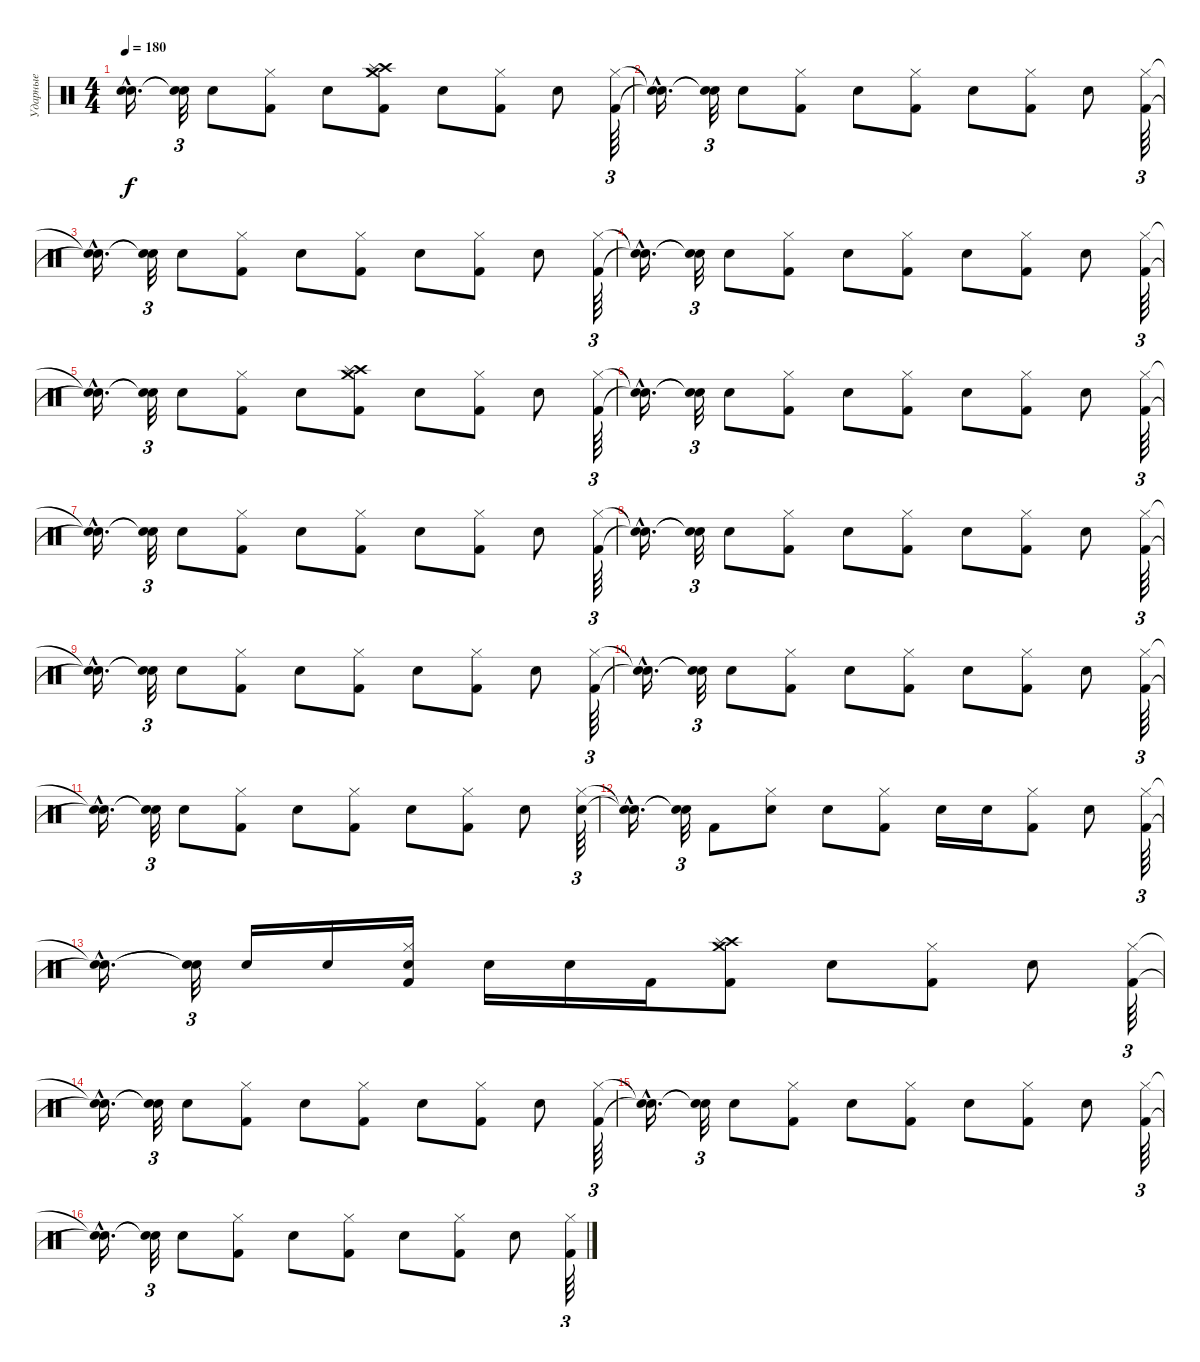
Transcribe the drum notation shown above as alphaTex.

\track ("Ударные" "Ударные") {instrument percussion}
\staff {score}
\articulation defaults
\ts (4 4)
\tempo 180
\clef neutral
\ks c
("Snare (hit)"{hac t} "Snare (hit)"{hac t}).16{d dy f} ("Snare (hit)"{t} "Snare (hit)"{t}).32{tu (3 2)} "Snare (hit) 2".8 ("Hi-Hat (closed)" "Kick (hit) 2").8 "Snare (hit) 2".8 ("Crash high (hit)" "Crash medium (hit)" "Splash (hit)" "Kick (hit) 2").8 "Snare (hit) 2".8 ("Hi-Hat (closed)" "Kick (hit) 2").8 "Snare (hit) 2".8 ("Hi-Hat (closed)" "Kick (hit) 2").64{tu (3 2)} |
("Snare (hit)"{hac t} "Snare (hit)"{hac t}).16{d} ("Snare (hit)"{t} "Snare (hit)"{t}).32{tu (3 2)} "Snare (hit) 2".8 ("Hi-Hat (closed)" "Kick (hit) 2").8 "Snare (hit) 2".8 ("Hi-Hat (closed)" "Kick (hit) 2").8 "Snare (hit) 2".8 ("Hi-Hat (closed)" "Kick (hit) 2").8 "Snare (hit) 2".8 ("Hi-Hat (closed)" "Kick (hit) 2").64{tu (3 2)} |
("Snare (hit)"{hac t} "Snare (hit)"{hac t}).16{d} ("Snare (hit)"{t} "Snare (hit)"{t}).32{tu (3 2)} "Snare (hit) 2".8 ("Hi-Hat (closed)" "Kick (hit) 2").8 "Snare (hit) 2".8 ("Hi-Hat (closed)" "Kick (hit) 2").8 "Snare (hit) 2".8 ("Hi-Hat (closed)" "Kick (hit) 2").8 "Snare (hit) 2".8 ("Hi-Hat (closed)" "Kick (hit) 2").64{tu (3 2)} |
("Snare (hit)"{hac t} "Snare (hit)"{hac t}).16{d} ("Snare (hit)"{t} "Snare (hit)"{t}).32{tu (3 2)} "Snare (hit) 2".8 ("Hi-Hat (closed)" "Kick (hit) 2").8 "Snare (hit) 2".8 ("Hi-Hat (closed)" "Kick (hit) 2").8 "Snare (hit) 2".8 ("Hi-Hat (closed)" "Kick (hit) 2").8 "Snare (hit) 2".8 ("Hi-Hat (closed)" "Kick (hit) 2").64{tu (3 2)} |
("Snare (hit)"{hac t} "Snare (hit)"{hac t}).16{d} ("Snare (hit)"{t} "Snare (hit)"{t}).32{tu (3 2)} "Snare (hit) 2".8 ("Hi-Hat (closed)" "Kick (hit) 2").8 "Snare (hit) 2".8 ("Crash high (hit)" "Crash medium (hit)" "Splash (hit)" "Kick (hit) 2").8 "Snare (hit) 2".8 ("Hi-Hat (closed)" "Kick (hit) 2").8 "Snare (hit) 2".8 ("Hi-Hat (closed)" "Kick (hit) 2").64{tu (3 2)} |
("Snare (hit)"{hac t} "Snare (hit)"{hac t}).16{d} ("Snare (hit)"{t} "Snare (hit)"{t}).32{tu (3 2)} "Snare (hit) 2".8 ("Hi-Hat (closed)" "Kick (hit) 2").8 "Snare (hit) 2".8 ("Hi-Hat (closed)" "Kick (hit) 2").8 "Snare (hit) 2".8 ("Hi-Hat (closed)" "Kick (hit) 2").8 "Snare (hit) 2".8 ("Hi-Hat (closed)" "Kick (hit) 2").64{tu (3 2)} |
("Snare (hit)"{hac t} "Snare (hit)"{hac t}).16{d} ("Snare (hit)"{t} "Snare (hit)"{t}).32{tu (3 2)} "Snare (hit) 2".8 ("Hi-Hat (closed)" "Kick (hit) 2").8 "Snare (hit) 2".8 ("Hi-Hat (closed)" "Kick (hit) 2").8 "Snare (hit) 2".8 ("Hi-Hat (closed)" "Kick (hit) 2").8 "Snare (hit) 2".8 ("Hi-Hat (closed)" "Kick (hit) 2").64{tu (3 2)} |
("Snare (hit)"{hac t} "Snare (hit)"{hac t}).16{d} ("Snare (hit)"{t} "Snare (hit)"{t}).32{tu (3 2)} "Snare (hit) 2".8 ("Hi-Hat (closed)" "Kick (hit) 2").8 "Snare (hit) 2".8 ("Hi-Hat (closed)" "Kick (hit) 2").8 "Snare (hit) 2".8 ("Hi-Hat (closed)" "Kick (hit) 2").8 "Snare (hit) 2".8 ("Hi-Hat (closed)" "Kick (hit) 2").64{tu (3 2)} |
("Snare (hit)"{hac t} "Snare (hit)"{hac t}).16{d} ("Snare (hit)"{t} "Snare (hit)"{t}).32{tu (3 2)} "Snare (hit) 2".8 ("Hi-Hat (closed)" "Kick (hit) 2").8 "Snare (hit) 2".8 ("Hi-Hat (closed)" "Kick (hit) 2").8 "Snare (hit) 2".8 ("Hi-Hat (closed)" "Kick (hit) 2").8 "Snare (hit) 2".8 ("Hi-Hat (closed)" "Kick (hit) 2").64{tu (3 2)} |
("Snare (hit)"{hac t} "Snare (hit)"{hac t}).16{d} ("Snare (hit)"{t} "Snare (hit)"{t}).32{tu (3 2)} "Snare (hit) 2".8 ("Hi-Hat (closed)" "Kick (hit) 2").8 "Snare (hit) 2".8 ("Hi-Hat (closed)" "Kick (hit) 2").8 "Snare (hit) 2".8 ("Hi-Hat (closed)" "Kick (hit) 2").8 "Snare (hit) 2".8 ("Hi-Hat (closed)" "Kick (hit) 2").64{tu (3 2)} |
("Snare (hit)"{hac t} "Snare (hit)"{hac t}).16{d} ("Snare (hit)"{t} "Snare (hit)"{t}).32{tu (3 2)} "Snare (hit) 2".8 ("Hi-Hat (closed)" "Kick (hit) 2").8 "Snare (hit) 2".8 ("Hi-Hat (closed)" "Kick (hit) 2").8 "Snare (hit) 2".8 ("Hi-Hat (closed)" "Kick (hit) 2").8 "Snare (hit) 2".8 ("Hi-Hat (closed)" "Snare (hit) 2").64{tu (3 2)} |
("Snare (hit)"{hac t} "Snare (hit)"{hac t}).16{d} ("Snare (hit)"{t} "Snare (hit)"{t}).32{tu (3 2)} "Kick (hit) 2".8 ("Hi-Hat (closed)" "Snare (hit) 2").8 "Snare (hit) 2".8 ("Hi-Hat (closed)" "Kick (hit) 2").8 "Snare (hit) 2".16 "Snare (hit) 2".16 ("Hi-Hat (closed)" "Kick (hit) 2").8 "Snare (hit) 2".8 ("Hi-Hat (closed)" "Kick (hit) 2").64{tu (3 2)} |
("Snare (hit)"{hac t} "Snare (hit)"{hac t}).16{d} ("Snare (hit)"{t} "Snare (hit)"{t}).32{tu (3 2)} "Snare (hit) 2".16 "Snare (hit) 2".16 ("Hi-Hat (closed)" "Snare (hit) 2" "Kick (hit) 2").16 "Snare (hit) 2".16 "Snare (hit) 2".16 "Kick (hit) 2".16 ("Crash high (hit)" "Crash medium (hit)" "Splash (hit)" "Kick (hit) 2").8 "Snare (hit) 2".8 ("Hi-Hat (closed)" "Kick (hit) 2").8 "Snare (hit) 2".8 ("Hi-Hat (closed)" "Kick (hit) 2").64{tu (3 2)} |
("Snare (hit)"{hac t} "Snare (hit)"{hac t}).16{d} ("Snare (hit)"{t} "Snare (hit)"{t}).32{tu (3 2)} "Snare (hit) 2".8 ("Hi-Hat (closed)" "Kick (hit) 2").8 "Snare (hit) 2".8 ("Hi-Hat (closed)" "Kick (hit) 2").8 "Snare (hit) 2".8 ("Hi-Hat (closed)" "Kick (hit) 2").8 "Snare (hit) 2".8 ("Hi-Hat (closed)" "Kick (hit) 2").64{tu (3 2)} |
("Snare (hit)"{hac t} "Snare (hit)"{hac t}).16{d} ("Snare (hit)"{t} "Snare (hit)"{t}).32{tu (3 2)} "Snare (hit) 2".8 ("Hi-Hat (closed)" "Kick (hit) 2").8 "Snare (hit) 2".8 ("Hi-Hat (closed)" "Kick (hit) 2").8 "Snare (hit) 2".8 ("Hi-Hat (closed)" "Kick (hit) 2").8 "Snare (hit) 2".8 ("Hi-Hat (closed)" "Kick (hit) 2").64{tu (3 2)} |
("Snare (hit)"{hac t} "Snare (hit)"{hac t}).16{d} ("Snare (hit)"{t} "Snare (hit)"{t}).32{tu (3 2)} "Snare (hit) 2".8 ("Hi-Hat (closed)" "Kick (hit) 2").8 "Snare (hit) 2".8 ("Hi-Hat (closed)" "Kick (hit) 2").8 "Snare (hit) 2".8 ("Hi-Hat (closed)" "Kick (hit) 2").8 "Snare (hit) 2".8 ("Hi-Hat (closed)" "Kick (hit) 2").64{tu (3 2)}
